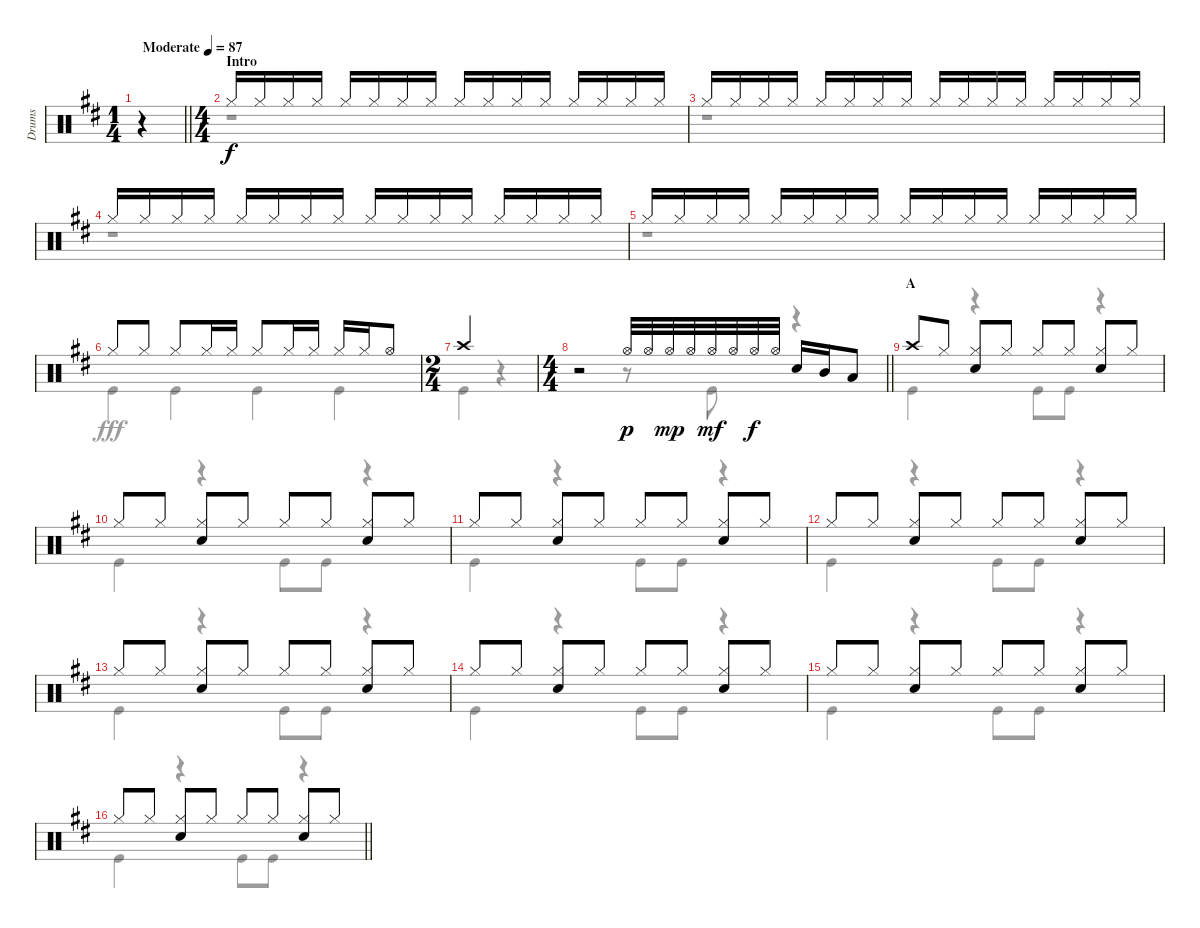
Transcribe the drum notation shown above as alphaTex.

\track ("Drums" "Drums") {instrument percussion}
\staff {score}
\articulation defaults
\voice
\ts (1 4)
\tempo (87 "Moderate")
\clef neutral
\barLineRight lightlight
\ks d
r.4{dy f} |
\ts (4 4)
\section ("" "Intro")
"Hi-Hat (closed)".16 "Hi-Hat (closed)".16 "Hi-Hat (closed)".16 "Hi-Hat (closed)".16 "Hi-Hat (closed)".16 "Hi-Hat (closed)".16 "Hi-Hat (closed)".16 "Hi-Hat (closed)".16 "Hi-Hat (closed)".16 "Hi-Hat (closed)".16 "Hi-Hat (closed)".16 "Hi-Hat (closed)".16 "Hi-Hat (closed)".16 "Hi-Hat (closed)".16 "Hi-Hat (closed)".16 "Hi-Hat (closed)".16 |
"Hi-Hat (closed)".16 "Hi-Hat (closed)".16 "Hi-Hat (closed)".16 "Hi-Hat (closed)".16 "Hi-Hat (closed)".16 "Hi-Hat (closed)".16 "Hi-Hat (closed)".16 "Hi-Hat (closed)".16 "Hi-Hat (closed)".16 "Hi-Hat (closed)".16 "Hi-Hat (closed)".16 "Hi-Hat (closed)".16 "Hi-Hat (closed)".16 "Hi-Hat (closed)".16 "Hi-Hat (closed)".16 "Hi-Hat (closed)".16 |
"Hi-Hat (closed)".16 "Hi-Hat (closed)".16 "Hi-Hat (closed)".16 "Hi-Hat (closed)".16 "Hi-Hat (closed)".16 "Hi-Hat (closed)".16 "Hi-Hat (closed)".16 "Hi-Hat (closed)".16 "Hi-Hat (closed)".16 "Hi-Hat (closed)".16 "Hi-Hat (closed)".16 "Hi-Hat (closed)".16 "Hi-Hat (closed)".16 "Hi-Hat (closed)".16 "Hi-Hat (closed)".16 "Hi-Hat (closed)".16 |
"Hi-Hat (closed)".16 "Hi-Hat (closed)".16 "Hi-Hat (closed)".16 "Hi-Hat (closed)".16 "Hi-Hat (closed)".16 "Hi-Hat (closed)".16 "Hi-Hat (closed)".16 "Hi-Hat (closed)".16 "Hi-Hat (closed)".16 "Hi-Hat (closed)".16 "Hi-Hat (closed)".16 "Hi-Hat (closed)".16 "Hi-Hat (closed)".16 "Hi-Hat (closed)".16 "Hi-Hat (closed)".16 "Hi-Hat (closed)".16 |
"Hi-Hat (closed)".8 "Hi-Hat (closed)".8 "Hi-Hat (closed)".8 "Hi-Hat (closed)".16 "Hi-Hat (closed)".16 "Hi-Hat (closed)".8 "Hi-Hat (closed)".16 "Hi-Hat (closed)".16 "Hi-Hat (closed)".16 "Hi-Hat (closed)".16 "Hi-Hat (open)".8 |
\ts (2 4)
"Crash high (hit)".2 |
\ts (4 4)
\barLineRight lightlight
r.2 "Hi-Hat (open)".32{dy p} "Hi-Hat (open)".32 "Hi-Hat (open)".32{dy mp} "Hi-Hat (open)".32 "Hi-Hat (open)".32{dy mf} "Hi-Hat (open)".32 "Hi-Hat (open)".32{dy f} "Hi-Hat (open)".32 "Snare (hit) 2".16 "Mid Tom (hit)".16 "Low Tom (hit)".8 |
\section ("" "A")
"Crash high (hit)".8 "Hi-Hat (closed)".8 ("Hi-Hat (closed)" "Snare (hit) 2").8 "Hi-Hat (closed)".8 "Hi-Hat (closed)".8 "Hi-Hat (closed)".8 ("Hi-Hat (closed)" "Snare (hit) 2").8 "Hi-Hat (closed)".8 |
"Hi-Hat (closed)".8 "Hi-Hat (closed)".8 ("Hi-Hat (closed)" "Snare (hit) 2").8 "Hi-Hat (closed)".8 "Hi-Hat (closed)".8 "Hi-Hat (closed)".8 ("Hi-Hat (closed)" "Snare (hit) 2").8 "Hi-Hat (closed)".8 |
"Hi-Hat (closed)".8 "Hi-Hat (closed)".8 ("Hi-Hat (closed)" "Snare (hit) 2").8 "Hi-Hat (closed)".8 "Hi-Hat (closed)".8 "Hi-Hat (closed)".8 ("Hi-Hat (closed)" "Snare (hit) 2").8 "Hi-Hat (closed)".8 |
"Hi-Hat (closed)".8 "Hi-Hat (closed)".8 ("Hi-Hat (closed)" "Snare (hit) 2").8 "Hi-Hat (closed)".8 "Hi-Hat (closed)".8 "Hi-Hat (closed)".8 ("Hi-Hat (closed)" "Snare (hit) 2").8 "Hi-Hat (closed)".8 |
"Hi-Hat (closed)".8 "Hi-Hat (closed)".8 ("Hi-Hat (closed)" "Snare (hit) 2").8 "Hi-Hat (closed)".8 "Hi-Hat (closed)".8 "Hi-Hat (closed)".8 ("Hi-Hat (closed)" "Snare (hit) 2").8 "Hi-Hat (closed)".8 |
"Hi-Hat (closed)".8 "Hi-Hat (closed)".8 ("Hi-Hat (closed)" "Snare (hit) 2").8 "Hi-Hat (closed)".8 "Hi-Hat (closed)".8 "Hi-Hat (closed)".8 ("Hi-Hat (closed)" "Snare (hit) 2").8 "Hi-Hat (closed)".8 |
"Hi-Hat (closed)".8 "Hi-Hat (closed)".8 ("Hi-Hat (closed)" "Snare (hit) 2").8 "Hi-Hat (closed)".8 "Hi-Hat (closed)".8 "Hi-Hat (closed)".8 ("Hi-Hat (closed)" "Snare (hit) 2").8 "Hi-Hat (closed)".8 |
\barLineRight lightlight "Hi-Hat (closed)".8 "Hi-Hat (closed)".8
("Hi-Hat (closed)" "Snare (hit) 2").8 "Hi-Hat (closed)".8 "Hi-Hat (closed)".8 "Hi-Hat (closed)".8 ("Hi-Hat (closed)" "Snare (hit) 2").8 "Hi-Hat (closed)".8
\voice
\clef neutral
\ottava regular
\simile none
\barLineRight lightlight
\ks d
r.4{dy fff} |
r.1 |
r.1 |
r.1 |
r.1 |
"Kick (hit)".4 "Kick (hit)".4 "Kick (hit)".4 "Kick (hit)".4 |
"Kick (hit)".4 r.4 |
\barLineRight lightlight
r.2 r.8 "Kick (hit)".8 r.4 |
"Kick (hit)".4 r.4 "Kick (hit)".8 "Kick (hit)".8 r.4 |
"Kick (hit)".4 r.4 "Kick (hit)".8 "Kick (hit)".8 r.4 |
"Kick (hit)".4 r.4 "Kick (hit)".8 "Kick (hit)".8 r.4 |
"Kick (hit)".4 r.4 "Kick (hit)".8 "Kick (hit)".8 r.4 |
"Kick (hit)".4 r.4 "Kick (hit)".8 "Kick (hit)".8 r.4 |
"Kick (hit)".4 r.4 "Kick (hit)".8 "Kick (hit)".8 r.4 |
"Kick (hit)".4 r.4 "Kick (hit)".8 "Kick (hit)".8 r.4 |
\barLineRight lightlight "Kick (hit)".4
r.4 "Kick (hit)".8 "Kick (hit)".8 r.4
